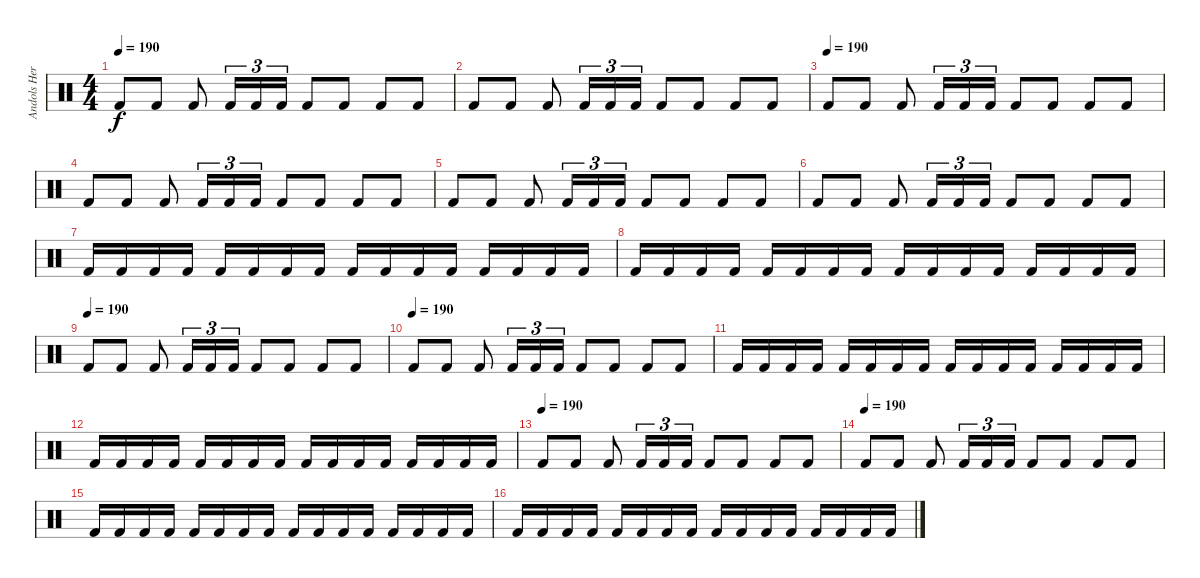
\track ("Andols Herrick [KICK]" "Andols Her") {instrument percussion}
\staff {score}
\articulation defaults
\ts (4 4)
\tempo 190
\clef neutral
\ks c "Kick (hit) 2".8{dy f} "Kick (hit) 2".8 "Kick (hit) 2".8 "Kick (hit) 2".16{tu (3 2)} "Kick (hit) 2".16{tu (3 2)} "Kick (hit) 2".16{tu (3 2)} "Kick (hit) 2".8 "Kick (hit) 2".8 "Kick (hit) 2".8 "Kick (hit) 2".8
|
"Kick (hit) 2".8 "Kick (hit) 2".8 "Kick (hit) 2".8 "Kick (hit) 2".16{tu (3 2)} "Kick (hit) 2".16{tu (3 2)} "Kick (hit) 2".16{tu (3 2)} "Kick (hit) 2".8 "Kick (hit) 2".8 "Kick (hit) 2".8 "Kick (hit) 2".8 |
\tempo (190)
"Kick (hit) 2".8 "Kick (hit) 2".8 "Kick (hit) 2".8 "Kick (hit) 2".16{tu (3 2)} "Kick (hit) 2".16{tu (3 2)} "Kick (hit) 2".16{tu (3 2)} "Kick (hit) 2".8 "Kick (hit) 2".8 "Kick (hit) 2".8 "Kick (hit) 2".8 |
"Kick (hit) 2".8 "Kick (hit) 2".8 "Kick (hit) 2".8 "Kick (hit) 2".16{tu (3 2)} "Kick (hit) 2".16{tu (3 2)} "Kick (hit) 2".16{tu (3 2)} "Kick (hit) 2".8 "Kick (hit) 2".8 "Kick (hit) 2".8 "Kick (hit) 2".8 |
"Kick (hit) 2".8 "Kick (hit) 2".8 "Kick (hit) 2".8 "Kick (hit) 2".16{tu (3 2)} "Kick (hit) 2".16{tu (3 2)} "Kick (hit) 2".16{tu (3 2)} "Kick (hit) 2".8 "Kick (hit) 2".8 "Kick (hit) 2".8 "Kick (hit) 2".8 |
"Kick (hit) 2".8 "Kick (hit) 2".8 "Kick (hit) 2".8 "Kick (hit) 2".16{tu (3 2)} "Kick (hit) 2".16{tu (3 2)} "Kick (hit) 2".16{tu (3 2)} "Kick (hit) 2".8 "Kick (hit) 2".8 "Kick (hit) 2".8 "Kick (hit) 2".8 |
"Kick (hit) 2".16 "Kick (hit) 2".16 "Kick (hit) 2".16 "Kick (hit) 2".16 "Kick (hit) 2".16 "Kick (hit) 2".16 "Kick (hit) 2".16 "Kick (hit) 2".16 "Kick (hit) 2".16 "Kick (hit) 2".16 "Kick (hit) 2".16 "Kick (hit) 2".16 "Kick (hit) 2".16 "Kick (hit) 2".16 "Kick (hit) 2".16 "Kick (hit) 2".16 |
"Kick (hit) 2".16 "Kick (hit) 2".16 "Kick (hit) 2".16 "Kick (hit) 2".16 "Kick (hit) 2".16 "Kick (hit) 2".16 "Kick (hit) 2".16 "Kick (hit) 2".16 "Kick (hit) 2".16 "Kick (hit) 2".16 "Kick (hit) 2".16 "Kick (hit) 2".16 "Kick (hit) 2".16 "Kick (hit) 2".16 "Kick (hit) 2".16 "Kick (hit) 2".16 |
\tempo (190)
"Kick (hit) 2".8 "Kick (hit) 2".8 "Kick (hit) 2".8 "Kick (hit) 2".16{tu (3 2)} "Kick (hit) 2".16{tu (3 2)} "Kick (hit) 2".16{tu (3 2)} "Kick (hit) 2".8 "Kick (hit) 2".8 "Kick (hit) 2".8 "Kick (hit) 2".8 |
\tempo (190)
"Kick (hit) 2".8 "Kick (hit) 2".8 "Kick (hit) 2".8 "Kick (hit) 2".16{tu (3 2)} "Kick (hit) 2".16{tu (3 2)} "Kick (hit) 2".16{tu (3 2)} "Kick (hit) 2".8 "Kick (hit) 2".8 "Kick (hit) 2".8 "Kick (hit) 2".8 |
"Kick (hit) 2".16 "Kick (hit) 2".16 "Kick (hit) 2".16 "Kick (hit) 2".16 "Kick (hit) 2".16 "Kick (hit) 2".16 "Kick (hit) 2".16 "Kick (hit) 2".16 "Kick (hit) 2".16 "Kick (hit) 2".16 "Kick (hit) 2".16 "Kick (hit) 2".16 "Kick (hit) 2".16 "Kick (hit) 2".16 "Kick (hit) 2".16 "Kick (hit) 2".16 |
"Kick (hit) 2".16 "Kick (hit) 2".16 "Kick (hit) 2".16 "Kick (hit) 2".16 "Kick (hit) 2".16 "Kick (hit) 2".16 "Kick (hit) 2".16 "Kick (hit) 2".16 "Kick (hit) 2".16 "Kick (hit) 2".16 "Kick (hit) 2".16 "Kick (hit) 2".16 "Kick (hit) 2".16 "Kick (hit) 2".16 "Kick (hit) 2".16 "Kick (hit) 2".16 |
\tempo (190)
"Kick (hit) 2".8 "Kick (hit) 2".8 "Kick (hit) 2".8 "Kick (hit) 2".16{tu (3 2)} "Kick (hit) 2".16{tu (3 2)} "Kick (hit) 2".16{tu (3 2)} "Kick (hit) 2".8 "Kick (hit) 2".8 "Kick (hit) 2".8 "Kick (hit) 2".8 |
\tempo (190)
"Kick (hit) 2".8 "Kick (hit) 2".8 "Kick (hit) 2".8 "Kick (hit) 2".16{tu (3 2)} "Kick (hit) 2".16{tu (3 2)} "Kick (hit) 2".16{tu (3 2)} "Kick (hit) 2".8 "Kick (hit) 2".8 "Kick (hit) 2".8 "Kick (hit) 2".8 |
"Kick (hit) 2".16 "Kick (hit) 2".16 "Kick (hit) 2".16 "Kick (hit) 2".16 "Kick (hit) 2".16 "Kick (hit) 2".16 "Kick (hit) 2".16 "Kick (hit) 2".16 "Kick (hit) 2".16 "Kick (hit) 2".16 "Kick (hit) 2".16 "Kick (hit) 2".16 "Kick (hit) 2".16 "Kick (hit) 2".16 "Kick (hit) 2".16 "Kick (hit) 2".16 |
"Kick (hit) 2".16 "Kick (hit) 2".16 "Kick (hit) 2".16 "Kick (hit) 2".16 "Kick (hit) 2".16 "Kick (hit) 2".16 "Kick (hit) 2".16 "Kick (hit) 2".16 "Kick (hit) 2".16 "Kick (hit) 2".16 "Kick (hit) 2".16 "Kick (hit) 2".16 "Kick (hit) 2".16 "Kick (hit) 2".16 "Kick (hit) 2".16 "Kick (hit) 2".16
